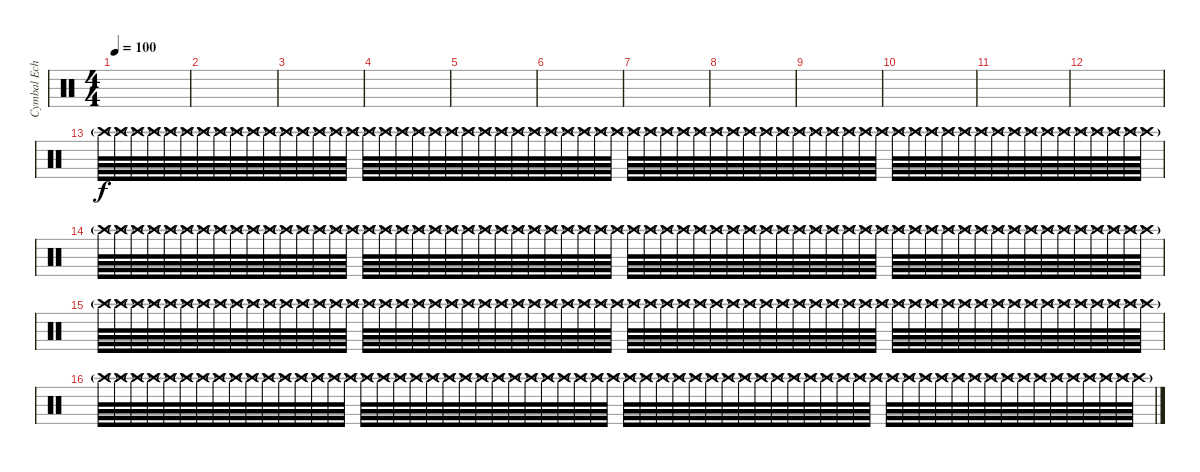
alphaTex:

\track ("Cymbal Echo Effect" "Cymbal Ech") {instrument percussion}
\staff {score}
\articulation defaults
\ts (4 4)
\tempo 100
\clef neutral
\ks aminor
|
|
|
|
|
|
|
|
|
|
|
|
"Crash high (hit)"{g}.64 "Crash high (hit)"{g}.64 "Crash high (hit)"{g}.64 "Crash high (hit)"{g}.64 "Crash high (hit)"{g}.64 "Crash high (hit)"{g}.64 "Crash high (hit)"{g}.64 "Crash high (hit)"{g}.64 "Crash high (hit)"{g}.64 "Crash high (hit)"{g}.64 "Crash high (hit)"{g}.64 "Crash high (hit)"{g}.64 "Crash high (hit)"{g}.64 "Crash high (hit)"{g}.64 "Crash high (hit)"{g}.64 "Crash high (hit)"{g}.64 "Crash high (hit)"{g}.64 "Crash high (hit)"{g}.64 "Crash high (hit)"{g}.64 "Crash high (hit)"{g}.64 "Crash high (hit)"{g}.64 "Crash high (hit)"{g}.64 "Crash high (hit)"{g}.64 "Crash high (hit)"{g}.64 "Crash high (hit)"{g}.64 "Crash high (hit)"{g}.64 "Crash high (hit)"{g}.64 "Crash high (hit)"{g}.64 "Crash high (hit)"{g}.64 "Crash high (hit)"{g}.64 "Crash high (hit)"{g}.64 "Crash high (hit)"{g}.64 "Crash high (hit)"{g}.64 "Crash high (hit)"{g}.64 "Crash high (hit)"{g}.64 "Crash high (hit)"{g}.64 "Crash high (hit)"{g}.64 "Crash high (hit)"{g}.64 "Crash high (hit)"{g}.64 "Crash high (hit)"{g}.64 "Crash high (hit)"{g}.64 "Crash high (hit)"{g}.64 "Crash high (hit)"{g}.64 "Crash high (hit)"{g}.64 "Crash high (hit)"{g}.64 "Crash high (hit)"{g}.64 "Crash high (hit)"{g}.64 "Crash high (hit)"{g}.64 "Crash high (hit)"{g}.64 "Crash high (hit)"{g}.64 "Crash high (hit)"{g}.64 "Crash high (hit)"{g}.64 "Crash high (hit)"{g}.64 "Crash high (hit)"{g}.64 "Crash high (hit)"{g}.64 "Crash high (hit)"{g}.64 "Crash high (hit)"{g}.64 "Crash high (hit)"{g}.64 "Crash high (hit)"{g}.64 "Crash high (hit)"{g}.64 "Crash high (hit)"{g}.64 "Crash high (hit)"{g}.64 "Crash high (hit)"{g}.64 "Crash high (hit)"{g}.64 |
"Crash high (hit)"{g}.64 "Crash high (hit)"{g}.64 "Crash high (hit)"{g}.64 "Crash high (hit)"{g}.64 "Crash high (hit)"{g}.64 "Crash high (hit)"{g}.64 "Crash high (hit)"{g}.64 "Crash high (hit)"{g}.64 "Crash high (hit)"{g}.64 "Crash high (hit)"{g}.64 "Crash high (hit)"{g}.64 "Crash high (hit)"{g}.64 "Crash high (hit)"{g}.64 "Crash high (hit)"{g}.64 "Crash high (hit)"{g}.64 "Crash high (hit)"{g}.64 "Crash high (hit)"{g}.64 "Crash high (hit)"{g}.64 "Crash high (hit)"{g}.64 "Crash high (hit)"{g}.64 "Crash high (hit)"{g}.64 "Crash high (hit)"{g}.64 "Crash high (hit)"{g}.64 "Crash high (hit)"{g}.64 "Crash high (hit)"{g}.64 "Crash high (hit)"{g}.64 "Crash high (hit)"{g}.64 "Crash high (hit)"{g}.64 "Crash high (hit)"{g}.64 "Crash high (hit)"{g}.64 "Crash high (hit)"{g}.64 "Crash high (hit)"{g}.64 "Crash high (hit)"{g}.64 "Crash high (hit)"{g}.64 "Crash high (hit)"{g}.64 "Crash high (hit)"{g}.64 "Crash high (hit)"{g}.64 "Crash high (hit)"{g}.64 "Crash high (hit)"{g}.64 "Crash high (hit)"{g}.64 "Crash high (hit)"{g}.64 "Crash high (hit)"{g}.64 "Crash high (hit)"{g}.64 "Crash high (hit)"{g}.64 "Crash high (hit)"{g}.64 "Crash high (hit)"{g}.64 "Crash high (hit)"{g}.64 "Crash high (hit)"{g}.64 "Crash high (hit)"{g}.64 "Crash high (hit)"{g}.64 "Crash high (hit)"{g}.64 "Crash high (hit)"{g}.64 "Crash high (hit)"{g}.64 "Crash high (hit)"{g}.64 "Crash high (hit)"{g}.64 "Crash high (hit)"{g}.64 "Crash high (hit)"{g}.64 "Crash high (hit)"{g}.64 "Crash high (hit)"{g}.64 "Crash high (hit)"{g}.64 "Crash high (hit)"{g}.64 "Crash high (hit)"{g}.64 "Crash high (hit)"{g}.64 "Crash high (hit)"{g}.64 |
"Crash high (hit)"{g}.64 "Crash high (hit)"{g}.64 "Crash high (hit)"{g}.64 "Crash high (hit)"{g}.64 "Crash high (hit)"{g}.64 "Crash high (hit)"{g}.64 "Crash high (hit)"{g}.64 "Crash high (hit)"{g}.64 "Crash high (hit)"{g}.64 "Crash high (hit)"{g}.64 "Crash high (hit)"{g}.64 "Crash high (hit)"{g}.64 "Crash high (hit)"{g}.64 "Crash high (hit)"{g}.64 "Crash high (hit)"{g}.64 "Crash high (hit)"{g}.64 "Crash high (hit)"{g}.64 "Crash high (hit)"{g}.64 "Crash high (hit)"{g}.64 "Crash high (hit)"{g}.64 "Crash high (hit)"{g}.64 "Crash high (hit)"{g}.64 "Crash high (hit)"{g}.64 "Crash high (hit)"{g}.64 "Crash high (hit)"{g}.64 "Crash high (hit)"{g}.64 "Crash high (hit)"{g}.64 "Crash high (hit)"{g}.64 "Crash high (hit)"{g}.64 "Crash high (hit)"{g}.64 "Crash high (hit)"{g}.64 "Crash high (hit)"{g}.64 "Crash high (hit)"{g}.64 "Crash high (hit)"{g}.64 "Crash high (hit)"{g}.64 "Crash high (hit)"{g}.64 "Crash high (hit)"{g}.64 "Crash high (hit)"{g}.64 "Crash high (hit)"{g}.64 "Crash high (hit)"{g}.64 "Crash high (hit)"{g}.64 "Crash high (hit)"{g}.64 "Crash high (hit)"{g}.64 "Crash high (hit)"{g}.64 "Crash high (hit)"{g}.64 "Crash high (hit)"{g}.64 "Crash high (hit)"{g}.64 "Crash high (hit)"{g}.64 "Crash high (hit)"{g}.64 "Crash high (hit)"{g}.64 "Crash high (hit)"{g}.64 "Crash high (hit)"{g}.64 "Crash high (hit)"{g}.64 "Crash high (hit)"{g}.64 "Crash high (hit)"{g}.64 "Crash high (hit)"{g}.64 "Crash high (hit)"{g}.64 "Crash high (hit)"{g}.64 "Crash high (hit)"{g}.64 "Crash high (hit)"{g}.64 "Crash high (hit)"{g}.64 "Crash high (hit)"{g}.64 "Crash high (hit)"{g}.64 "Crash high (hit)"{g}.64 |
"Crash high (hit)"{g}.64 "Crash high (hit)"{g}.64 "Crash high (hit)"{g}.64 "Crash high (hit)"{g}.64 "Crash high (hit)"{g}.64 "Crash high (hit)"{g}.64 "Crash high (hit)"{g}.64 "Crash high (hit)"{g}.64 "Crash high (hit)"{g}.64 "Crash high (hit)"{g}.64 "Crash high (hit)"{g}.64 "Crash high (hit)"{g}.64 "Crash high (hit)"{g}.64 "Crash high (hit)"{g}.64 "Crash high (hit)"{g}.64 "Crash high (hit)"{g}.64 "Crash high (hit)"{g}.64 "Crash high (hit)"{g}.64 "Crash high (hit)"{g}.64 "Crash high (hit)"{g}.64 "Crash high (hit)"{g}.64 "Crash high (hit)"{g}.64 "Crash high (hit)"{g}.64 "Crash high (hit)"{g}.64 "Crash high (hit)"{g}.64 "Crash high (hit)"{g}.64 "Crash high (hit)"{g}.64 "Crash high (hit)"{g}.64 "Crash high (hit)"{g}.64 "Crash high (hit)"{g}.64 "Crash high (hit)"{g}.64 "Crash high (hit)"{g}.64 "Crash high (hit)"{g}.64 "Crash high (hit)"{g}.64 "Crash high (hit)"{g}.64 "Crash high (hit)"{g}.64 "Crash high (hit)"{g}.64 "Crash high (hit)"{g}.64 "Crash high (hit)"{g}.64 "Crash high (hit)"{g}.64 "Crash high (hit)"{g}.64 "Crash high (hit)"{g}.64 "Crash high (hit)"{g}.64 "Crash high (hit)"{g}.64 "Crash high (hit)"{g}.64 "Crash high (hit)"{g}.64 "Crash high (hit)"{g}.64 "Crash high (hit)"{g}.64 "Crash high (hit)"{g}.64 "Crash high (hit)"{g}.64 "Crash high (hit)"{g}.64 "Crash high (hit)"{g}.64 "Crash high (hit)"{g}.64 "Crash high (hit)"{g}.64 "Crash high (hit)"{g}.64 "Crash high (hit)"{g}.64 "Crash high (hit)"{g}.64 "Crash high (hit)"{g}.64 "Crash high (hit)"{g}.64 "Crash high (hit)"{g}.64 "Crash high (hit)"{g}.64 "Crash high (hit)"{g}.64 "Crash high (hit)"{g}.64 "Crash high (hit)"{g}.64
